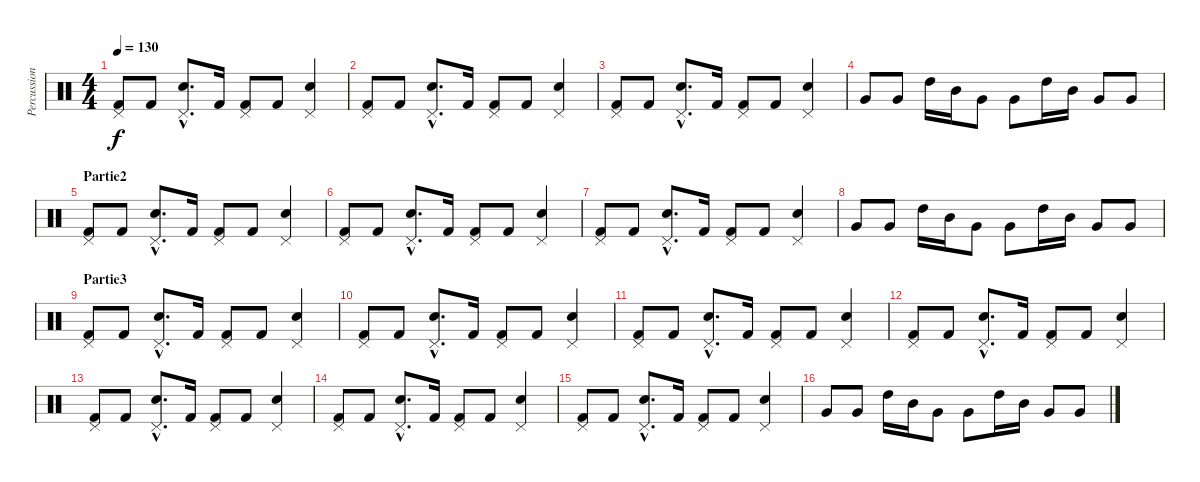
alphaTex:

\track ("Percussions" "Percussion") {instrument percussion}
\staff {score}
\articulation defaults
\ts (4 4)
\tempo 130
\clef neutral
\ks c
("Pedal Hi-Hat (hit)" "Kick (hit) 2").8{dy f} "Kick (hit) 2".8 ("Pedal Hi-Hat (hit)"{hac} "Hand Clap (hit)"{hac}).8{d} "Kick (hit) 2".16 ("Pedal Hi-Hat (hit)" "Kick (hit) 2").8 "Kick (hit) 2".8 ("Pedal Hi-Hat (hit)" "Hand Clap (hit)").4 |
("Pedal Hi-Hat (hit)" "Kick (hit) 2").8 "Kick (hit) 2".8 ("Pedal Hi-Hat (hit)"{hac} "Hand Clap (hit)"{hac}).8{d} "Kick (hit) 2".16 ("Pedal Hi-Hat (hit)" "Kick (hit) 2").8 "Kick (hit) 2".8 ("Pedal Hi-Hat (hit)" "Hand Clap (hit)").4 |
("Pedal Hi-Hat (hit)" "Kick (hit) 2").8 "Kick (hit) 2".8 ("Pedal Hi-Hat (hit)"{hac} "Hand Clap (hit)"{hac}).8{d} "Kick (hit) 2".16 ("Pedal Hi-Hat (hit)" "Kick (hit) 2").8 "Kick (hit) 2".8 ("Pedal Hi-Hat (hit)" "Hand Clap (hit)").4 |
"Very Low Tom (hit)".8 "Very Low Tom (hit)".8 "High Tom (hit)".16 "Mid Tom (hit)".16 "Very Low Tom (hit)".8 "Very Low Tom (hit)".8 "High Tom (hit)".16 "Mid Tom (hit)".16 "Very Low Tom (hit)".8 "Very Low Tom (hit)".8 |
\section ("" "Partie2")
("Pedal Hi-Hat (hit)" "Kick (hit) 2").8 "Kick (hit) 2".8 ("Pedal Hi-Hat (hit)"{hac} "Hand Clap (hit)"{hac}).8{d} "Kick (hit) 2".16 ("Pedal Hi-Hat (hit)" "Kick (hit) 2").8 "Kick (hit) 2".8 ("Pedal Hi-Hat (hit)" "Hand Clap (hit)").4 |
("Pedal Hi-Hat (hit)" "Kick (hit) 2").8 "Kick (hit) 2".8 ("Pedal Hi-Hat (hit)"{hac} "Hand Clap (hit)"{hac}).8{d} "Kick (hit) 2".16 ("Pedal Hi-Hat (hit)" "Kick (hit) 2").8 "Kick (hit) 2".8 ("Pedal Hi-Hat (hit)" "Hand Clap (hit)").4 |
("Pedal Hi-Hat (hit)" "Kick (hit) 2").8 "Kick (hit) 2".8 ("Pedal Hi-Hat (hit)"{hac} "Hand Clap (hit)"{hac}).8{d} "Kick (hit) 2".16 ("Pedal Hi-Hat (hit)" "Kick (hit) 2").8 "Kick (hit) 2".8 ("Pedal Hi-Hat (hit)" "Hand Clap (hit)").4 |
"Very Low Tom (hit)".8 "Very Low Tom (hit)".8 "High Tom (hit)".16 "Mid Tom (hit)".16 "Very Low Tom (hit)".8 "Very Low Tom (hit)".8 "High Tom (hit)".16 "Mid Tom (hit)".16 "Very Low Tom (hit)".8 "Very Low Tom (hit)".8 |
\section ("" "Partie3")
("Pedal Hi-Hat (hit)" "Kick (hit) 2").8 "Kick (hit) 2".8 ("Pedal Hi-Hat (hit)"{hac} "Hand Clap (hit)"{hac}).8{d} "Kick (hit) 2".16 ("Pedal Hi-Hat (hit)" "Kick (hit) 2").8 "Kick (hit) 2".8 ("Pedal Hi-Hat (hit)" "Hand Clap (hit)").4 |
("Pedal Hi-Hat (hit)" "Kick (hit) 2").8 "Kick (hit) 2".8 ("Pedal Hi-Hat (hit)"{hac} "Hand Clap (hit)"{hac}).8{d} "Kick (hit) 2".16 ("Pedal Hi-Hat (hit)" "Kick (hit) 2").8 "Kick (hit) 2".8 ("Pedal Hi-Hat (hit)" "Hand Clap (hit)").4 |
("Pedal Hi-Hat (hit)" "Kick (hit) 2").8 "Kick (hit) 2".8 ("Pedal Hi-Hat (hit)"{hac} "Hand Clap (hit)"{hac}).8{d} "Kick (hit) 2".16 ("Pedal Hi-Hat (hit)" "Kick (hit) 2").8 "Kick (hit) 2".8 ("Pedal Hi-Hat (hit)" "Hand Clap (hit)").4 |
("Pedal Hi-Hat (hit)" "Kick (hit) 2").8 "Kick (hit) 2".8 ("Pedal Hi-Hat (hit)"{hac} "Hand Clap (hit)"{hac}).8{d} "Kick (hit) 2".16 ("Pedal Hi-Hat (hit)" "Kick (hit) 2").8 "Kick (hit) 2".8 ("Pedal Hi-Hat (hit)" "Hand Clap (hit)").4 |
("Pedal Hi-Hat (hit)" "Kick (hit) 2").8 "Kick (hit) 2".8 ("Pedal Hi-Hat (hit)"{hac} "Hand Clap (hit)"{hac}).8{d} "Kick (hit) 2".16 ("Pedal Hi-Hat (hit)" "Kick (hit) 2").8 "Kick (hit) 2".8 ("Pedal Hi-Hat (hit)" "Hand Clap (hit)").4 |
("Pedal Hi-Hat (hit)" "Kick (hit) 2").8 "Kick (hit) 2".8 ("Pedal Hi-Hat (hit)"{hac} "Hand Clap (hit)"{hac}).8{d} "Kick (hit) 2".16 ("Pedal Hi-Hat (hit)" "Kick (hit) 2").8 "Kick (hit) 2".8 ("Pedal Hi-Hat (hit)" "Hand Clap (hit)").4 |
("Pedal Hi-Hat (hit)" "Kick (hit) 2").8 "Kick (hit) 2".8 ("Pedal Hi-Hat (hit)"{hac} "Hand Clap (hit)"{hac}).8{d} "Kick (hit) 2".16 ("Pedal Hi-Hat (hit)" "Kick (hit) 2").8 "Kick (hit) 2".8 ("Pedal Hi-Hat (hit)" "Hand Clap (hit)").4 |
"Very Low Tom (hit)".8 "Very Low Tom (hit)".8 "High Tom (hit)".16 "Mid Tom (hit)".16 "Very Low Tom (hit)".8 "Very Low Tom (hit)".8 "High Tom (hit)".16 "Mid Tom (hit)".16 "Very Low Tom (hit)".8 "Very Low Tom (hit)".8
